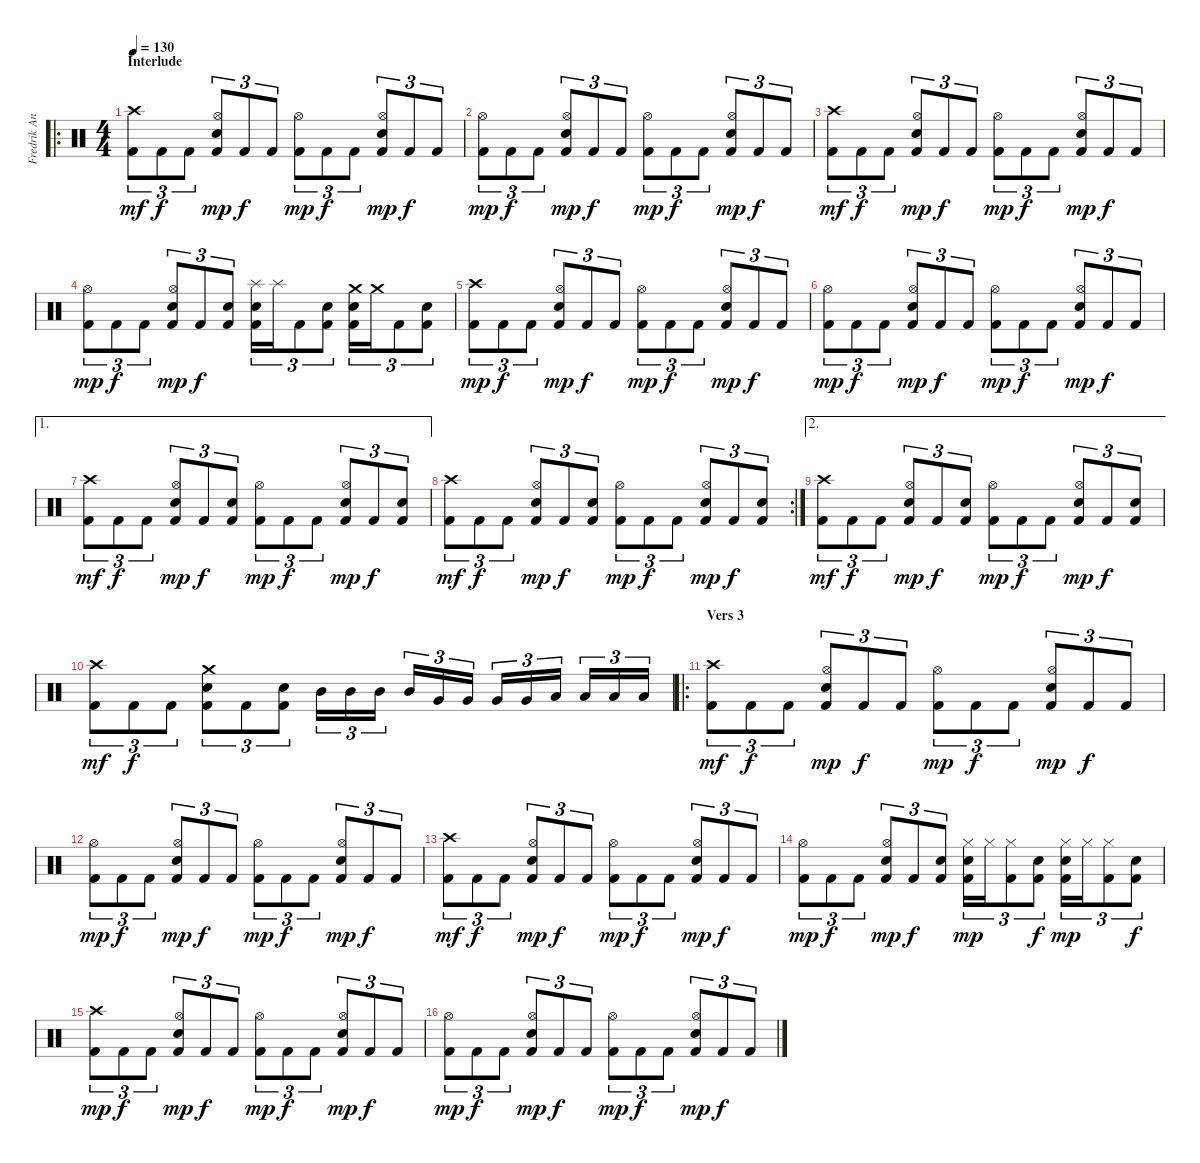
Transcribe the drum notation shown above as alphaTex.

\track ("Fredrik Andersson" "Fredrik An") {instrument percussion}
\staff {score}
\articulation defaults
\ro
\ts (4 4)
\section ("" "Interlude")
\tempo 130
\clef neutral
\ks c
("Crash high (hit)" "Kick (hit) 2").8{tu (3 2) dy mf} "Kick (hit) 2".8{tu (3 2) dy f} "Kick (hit) 2".8{tu (3 2)} ("Hi-Hat (open)" "Snare (hit) 2" "Kick (hit) 2").8{tu (3 2) dy mp} "Kick (hit) 2".8{tu (3 2) dy f} "Kick (hit) 2".8{tu (3 2)} ("Hi-Hat (open)" "Kick (hit) 2").8{tu (3 2) dy mp} "Kick (hit) 2".8{tu (3 2) dy f} "Kick (hit) 2".8{tu (3 2)} ("Hi-Hat (open)" "Snare (hit) 2" "Kick (hit) 2").8{tu (3 2) dy mp} "Kick (hit) 2".8{tu (3 2) dy f} "Kick (hit) 2".8{tu (3 2)} |
("Hi-Hat (open)" "Kick (hit) 2").8{tu (3 2) dy mp} "Kick (hit) 2".8{tu (3 2) dy f} "Kick (hit) 2".8{tu (3 2)} ("Hi-Hat (open)" "Snare (hit) 2" "Kick (hit) 2").8{tu (3 2) dy mp} "Kick (hit) 2".8{tu (3 2) dy f} "Kick (hit) 2".8{tu (3 2)} ("Hi-Hat (open)" "Kick (hit) 2").8{tu (3 2) dy mp} "Kick (hit) 2".8{tu (3 2) dy f} "Kick (hit) 2".8{tu (3 2)} ("Hi-Hat (open)" "Snare (hit) 2" "Kick (hit) 2").8{tu (3 2) dy mp} "Kick (hit) 2".8{tu (3 2) dy f} "Kick (hit) 2".8{tu (3 2)} |
("Crash high (hit)" "Kick (hit) 2").8{tu (3 2) dy mf} "Kick (hit) 2".8{tu (3 2) dy f} "Kick (hit) 2".8{tu (3 2)} ("Hi-Hat (open)" "Snare (hit) 2" "Kick (hit) 2").8{tu (3 2) dy mp} "Kick (hit) 2".8{tu (3 2) dy f} "Kick (hit) 2".8{tu (3 2)} ("Hi-Hat (open)" "Kick (hit) 2").8{tu (3 2) dy mp} "Kick (hit) 2".8{tu (3 2) dy f} "Kick (hit) 2".8{tu (3 2)} ("Hi-Hat (open)" "Snare (hit) 2" "Kick (hit) 2").8{tu (3 2) dy mp} "Kick (hit) 2".8{tu (3 2) dy f} "Kick (hit) 2".8{tu (3 2)} |
("Hi-Hat (open)" "Kick (hit) 2").8{tu (3 2) dy mp} "Kick (hit) 2".8{tu (3 2) dy f} "Kick (hit) 2".8{tu (3 2)} ("Hi-Hat (open)" "Snare (hit) 2" "Kick (hit) 2").8{tu (3 2) dy mp} "Kick (hit) 2".8{tu (3 2) dy f} ("Snare (hit) 2" "Kick (hit) 2").8{tu (3 2)} ("Splash (hit)" "Snare (hit) 2" "Kick (hit) 2").16{tu (3 2)} "Splash (hit)".16{tu (3 2)} "Kick (hit) 2".8{tu (3 2)} ("Snare (hit) 2" "Kick (hit) 2").8{tu (3 2)} ("Crash medium (hit)" "Snare (hit) 2" "Kick (hit) 2").16{tu (3 2)} "Crash medium (hit)".16{tu (3 2)} "Kick (hit) 2".8{tu (3 2)} ("Snare (hit) 2" "Kick (hit) 2").8{tu (3 2)} |
("Crash high (hit)" "Kick (hit) 2").8{tu (3 2) dy mp} "Kick (hit) 2".8{tu (3 2) dy f} "Kick (hit) 2".8{tu (3 2)} ("Hi-Hat (open)" "Snare (hit) 2" "Kick (hit) 2").8{tu (3 2) dy mp} "Kick (hit) 2".8{tu (3 2) dy f} "Kick (hit) 2".8{tu (3 2)} ("Hi-Hat (open)" "Kick (hit) 2").8{tu (3 2) dy mp} "Kick (hit) 2".8{tu (3 2) dy f} "Kick (hit) 2".8{tu (3 2)} ("Hi-Hat (open)" "Snare (hit) 2" "Kick (hit) 2").8{tu (3 2) dy mp} "Kick (hit) 2".8{tu (3 2) dy f} "Kick (hit) 2".8{tu (3 2)} |
("Hi-Hat (open)" "Kick (hit) 2").8{tu (3 2) dy mp} "Kick (hit) 2".8{tu (3 2) dy f} "Kick (hit) 2".8{tu (3 2)} ("Hi-Hat (open)" "Snare (hit) 2" "Kick (hit) 2").8{tu (3 2) dy mp} "Kick (hit) 2".8{tu (3 2) dy f} "Kick (hit) 2".8{tu (3 2)} ("Hi-Hat (open)" "Kick (hit) 2").8{tu (3 2) dy mp} "Kick (hit) 2".8{tu (3 2) dy f} "Kick (hit) 2".8{tu (3 2)} ("Hi-Hat (open)" "Snare (hit) 2" "Kick (hit) 2").8{tu (3 2) dy mp} "Kick (hit) 2".8{tu (3 2) dy f} "Kick (hit) 2".8{tu (3 2)} |
\ae 1
("Crash high (hit)" "Kick (hit) 2").8{tu (3 2) dy mf} "Kick (hit) 2".8{tu (3 2) dy f} "Kick (hit) 2".8{tu (3 2)} ("Hi-Hat (open)" "Snare (hit) 2" "Kick (hit) 2").8{tu (3 2) dy mp} "Kick (hit) 2".8{tu (3 2) dy f} ("Snare (hit) 2" "Kick (hit) 2").8{tu (3 2)} ("Hi-Hat (open)" "Kick (hit) 2").8{tu (3 2) dy mp} "Kick (hit) 2".8{tu (3 2) dy f} "Kick (hit) 2".8{tu (3 2)} ("Hi-Hat (open)" "Snare (hit) 2" "Kick (hit) 2").8{tu (3 2) dy mp} "Kick (hit) 2".8{tu (3 2) dy f} ("Snare (hit) 2" "Kick (hit) 2").8{tu (3 2)} |
\rc 2
("Crash high (hit)" "Kick (hit) 2").8{tu (3 2) dy mf} "Kick (hit) 2".8{tu (3 2) dy f} "Kick (hit) 2".8{tu (3 2)} ("Hi-Hat (open)" "Snare (hit) 2" "Kick (hit) 2").8{tu (3 2) dy mp} "Kick (hit) 2".8{tu (3 2) dy f} ("Snare (hit) 2" "Kick (hit) 2").8{tu (3 2)} ("Hi-Hat (open)" "Kick (hit) 2").8{tu (3 2) dy mp} "Kick (hit) 2".8{tu (3 2) dy f} "Kick (hit) 2".8{tu (3 2)} ("Hi-Hat (open)" "Snare (hit) 2" "Kick (hit) 2").8{tu (3 2) dy mp} "Kick (hit) 2".8{tu (3 2) dy f} ("Snare (hit) 2" "Kick (hit) 2").8{tu (3 2)} |
\ae 2
("Crash high (hit)" "Kick (hit) 2").8{tu (3 2) dy mf} "Kick (hit) 2".8{tu (3 2) dy f} "Kick (hit) 2".8{tu (3 2)} ("Hi-Hat (open)" "Snare (hit) 2" "Kick (hit) 2").8{tu (3 2) dy mp} "Kick (hit) 2".8{tu (3 2) dy f} ("Snare (hit) 2" "Kick (hit) 2").8{tu (3 2)} ("Hi-Hat (open)" "Kick (hit) 2").8{tu (3 2) dy mp} "Kick (hit) 2".8{tu (3 2) dy f} "Kick (hit) 2".8{tu (3 2)} ("Hi-Hat (open)" "Snare (hit) 2" "Kick (hit) 2").8{tu (3 2) dy mp} "Kick (hit) 2".8{tu (3 2) dy f} ("Snare (hit) 2" "Kick (hit) 2").8{tu (3 2)} |
("Crash high (hit)" "Kick (hit) 2").8{tu (3 2) dy mf} "Kick (hit) 2".8{tu (3 2) dy f} "Kick (hit) 2".8{tu (3 2)} ("Crash medium (hit)" "Snare (hit) 2" "Kick (hit) 2").8{tu (3 2)} "Kick (hit) 2".8{tu (3 2)} ("Snare (hit) 2" "Kick (hit) 2").8{tu (3 2)} "Mid Tom (hit)".16{tu (3 2)} "Mid Tom (hit)".16{tu (3 2)} "Mid Tom (hit)".16{tu (3 2)} "Mid Tom (hit)".16{tu (3 2)} "Very Low Tom (hit)".16{tu (3 2)} "Very Low Tom (hit)".16{tu (3 2)} "Very Low Tom (hit)".16{tu (3 2)} "Very Low Tom (hit)".16{tu (3 2)} "Low Floor Tom (hit)".16{tu (3 2)} "Low Floor Tom (hit)".16{tu (3 2)} "Low Floor Tom (hit)".16{tu (3 2)} "Low Floor Tom (hit)".16{tu (3 2)} |
\ro
\section ("" "Vers 3")
("Crash high (hit)" "Kick (hit) 2").8{tu (3 2) dy mf} "Kick (hit) 2".8{tu (3 2) dy f} "Kick (hit) 2".8{tu (3 2)} ("Hi-Hat (open)" "Snare (hit) 2" "Kick (hit) 2").8{tu (3 2) dy mp} "Kick (hit) 2".8{tu (3 2) dy f} "Kick (hit) 2".8{tu (3 2)} ("Hi-Hat (open)" "Kick (hit) 2").8{tu (3 2) dy mp} "Kick (hit) 2".8{tu (3 2) dy f} "Kick (hit) 2".8{tu (3 2)} ("Hi-Hat (open)" "Snare (hit) 2" "Kick (hit) 2").8{tu (3 2) dy mp} "Kick (hit) 2".8{tu (3 2) dy f} "Kick (hit) 2".8{tu (3 2)} |
("Hi-Hat (open)" "Kick (hit) 2").8{tu (3 2) dy mp} "Kick (hit) 2".8{tu (3 2) dy f} "Kick (hit) 2".8{tu (3 2)} ("Hi-Hat (open)" "Snare (hit) 2" "Kick (hit) 2").8{tu (3 2) dy mp} "Kick (hit) 2".8{tu (3 2) dy f} "Kick (hit) 2".8{tu (3 2)} ("Hi-Hat (open)" "Kick (hit) 2").8{tu (3 2) dy mp} "Kick (hit) 2".8{tu (3 2) dy f} "Kick (hit) 2".8{tu (3 2)} ("Hi-Hat (open)" "Snare (hit) 2" "Kick (hit) 2").8{tu (3 2) dy mp} "Kick (hit) 2".8{tu (3 2) dy f} "Kick (hit) 2".8{tu (3 2)} |
("Crash high (hit)" "Kick (hit) 2").8{tu (3 2) dy mf} "Kick (hit) 2".8{tu (3 2) dy f} "Kick (hit) 2".8{tu (3 2)} ("Hi-Hat (open)" "Snare (hit) 2" "Kick (hit) 2").8{tu (3 2) dy mp} "Kick (hit) 2".8{tu (3 2) dy f} "Kick (hit) 2".8{tu (3 2)} ("Hi-Hat (open)" "Kick (hit) 2").8{tu (3 2) dy mp} "Kick (hit) 2".8{tu (3 2) dy f} "Kick (hit) 2".8{tu (3 2)} ("Hi-Hat (open)" "Snare (hit) 2" "Kick (hit) 2").8{tu (3 2) dy mp} "Kick (hit) 2".8{tu (3 2) dy f} "Kick (hit) 2".8{tu (3 2)} |
("Hi-Hat (open)" "Kick (hit) 2").8{tu (3 2) dy mp} "Kick (hit) 2".8{tu (3 2) dy f} "Kick (hit) 2".8{tu (3 2)} ("Hi-Hat (open)" "Snare (hit) 2" "Kick (hit) 2").8{tu (3 2) dy mp} "Kick (hit) 2".8{tu (3 2) dy f} ("Snare (hit) 2" "Kick (hit) 2").8{tu (3 2)} ("Hi-Hat (closed)" "Snare (hit) 2" "Kick (hit) 2").16{tu (3 2) dy mp} "Hi-Hat (closed)".16{tu (3 2)} ("Hi-Hat (closed)" "Kick (hit) 2").8{tu (3 2)} ("Snare (hit) 2" "Kick (hit) 2").8{tu (3 2) dy f} ("Hi-Hat (closed)" "Snare (hit) 2" "Kick (hit) 2").16{tu (3 2) dy mp} "Hi-Hat (closed)".16{tu (3 2)} ("Hi-Hat (closed)" "Kick (hit) 2").8{tu (3 2)} ("Snare (hit) 2" "Kick (hit) 2").8{tu (3 2) dy f} |
("Crash high (hit)" "Kick (hit) 2").8{tu (3 2) dy mp} "Kick (hit) 2".8{tu (3 2) dy f} "Kick (hit) 2".8{tu (3 2)} ("Hi-Hat (open)" "Snare (hit) 2" "Kick (hit) 2").8{tu (3 2) dy mp} "Kick (hit) 2".8{tu (3 2) dy f} "Kick (hit) 2".8{tu (3 2)} ("Hi-Hat (open)" "Kick (hit) 2").8{tu (3 2) dy mp} "Kick (hit) 2".8{tu (3 2) dy f} "Kick (hit) 2".8{tu (3 2)} ("Hi-Hat (open)" "Snare (hit) 2" "Kick (hit) 2").8{tu (3 2) dy mp} "Kick (hit) 2".8{tu (3 2) dy f} "Kick (hit) 2".8{tu (3 2)} |
("Hi-Hat (open)" "Kick (hit) 2").8{tu (3 2) dy mp} "Kick (hit) 2".8{tu (3 2) dy f} "Kick (hit) 2".8{tu (3 2)} ("Hi-Hat (open)" "Snare (hit) 2" "Kick (hit) 2").8{tu (3 2) dy mp} "Kick (hit) 2".8{tu (3 2) dy f} "Kick (hit) 2".8{tu (3 2)} ("Hi-Hat (open)" "Kick (hit) 2").8{tu (3 2) dy mp} "Kick (hit) 2".8{tu (3 2) dy f} "Kick (hit) 2".8{tu (3 2)} ("Hi-Hat (open)" "Snare (hit) 2" "Kick (hit) 2").8{tu (3 2) dy mp} "Kick (hit) 2".8{tu (3 2) dy f} "Kick (hit) 2".8{tu (3 2)}
